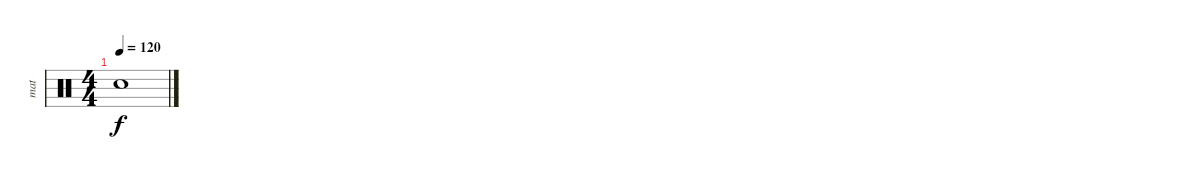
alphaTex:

\track ("mat" "mat") {instrument percussion}
\staff {score}
\articulation defaults
\ts (4 4)
\tempo 120
\clef neutral
\ks c "Snare (hit)"{t}.1{dy f}
